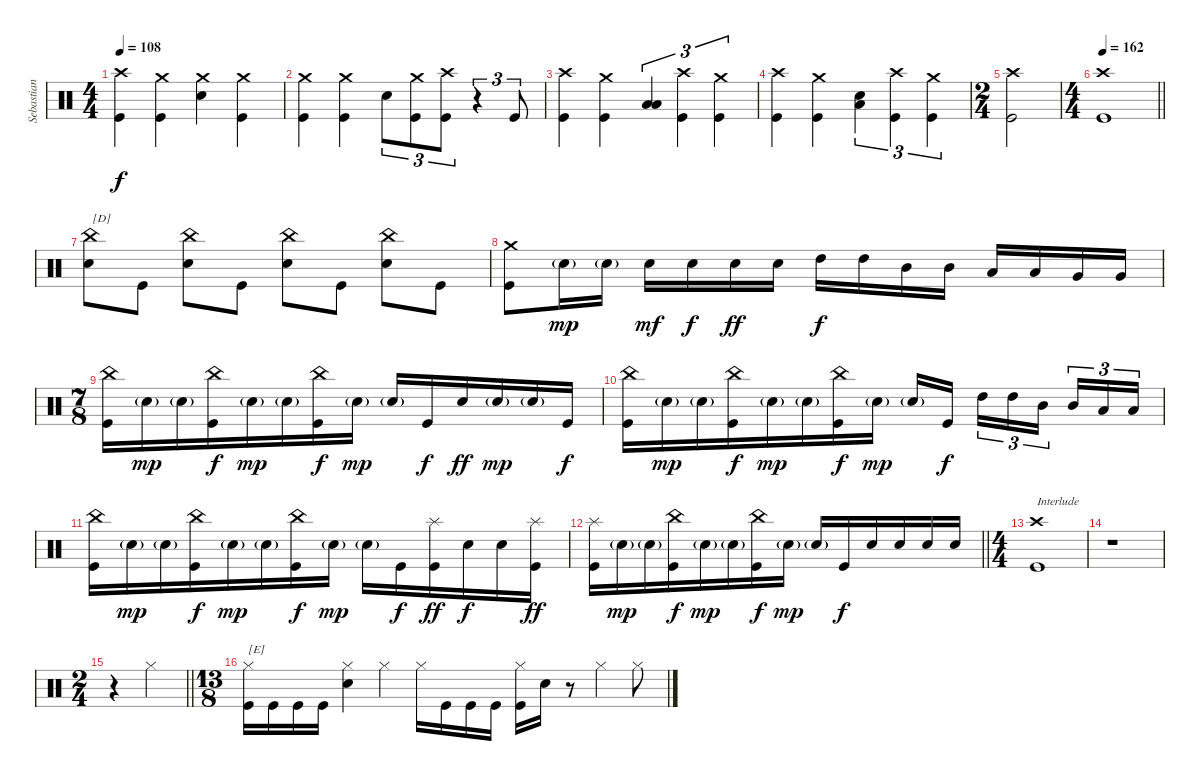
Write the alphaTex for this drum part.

\track ("Sebastian Lanser" "Sebastian ") {instrument percussion}
\staff {score}
\articulation defaults
\ts (4 4)
\tempo 108
\clef neutral
\ks c
("Crash high (hit)" "Kick (hit)").4{dy f} ("Crash medium (hit)" "Kick (hit)").4 ("Crash medium (hit)" "Snare (hit) 2").4 ("Crash medium (hit)" "Kick (hit)").4 |
("Crash medium (hit)" "Kick (hit)").4 ("Crash medium (hit)" "Kick (hit)").4 "Snare (hit) 2".8{tu (3 2)} ("Crash medium (hit)" "Kick (hit)").8{tu (3 2)} ("Crash high (hit)" "Kick (hit)").8{tu (3 2)} r.4{tu (3 2)} "Kick (hit)".8{tu (3 2)} |
("Crash high (hit)" "Kick (hit)").4 ("Crash medium (hit)" "Kick (hit)").4 ("Low Floor Tom (hit)" "Low Tom (hit)").4{tu (3 2)} ("Crash high (hit)" "Kick (hit)").4{tu (3 2)} ("Crash medium (hit)" "Kick (hit)").4{tu (3 2)} |
("Crash high (hit)" "Kick (hit)").4 ("Crash medium (hit)" "Kick (hit)").4 ("Low Tom (hit)" "Snare (hit) 2").4{tu (3 2)} ("Crash high (hit)" "Kick (hit)").4{tu (3 2)} ("Crash medium (hit)" "Kick (hit)").4{tu (3 2)} |
\ts (2 4)
("Crash high (hit)" "Kick (hit)").2 |
\ts (4 4)
\tempo 162
\barLineRight lightlight
("Crash high (hit)" "Kick (hit)").1 |
("China (hit)" "Snare (hit) 2").8{txt "[D]"} "Kick (hit)".8 ("China (hit)" "Snare (hit) 2").8 "Kick (hit)".8 ("China (hit)" "Snare (hit) 2").8 "Kick (hit)".8 ("China (hit)" "Snare (hit) 2").8 "Kick (hit)".8 |
("Crash medium (hit)" "Kick (hit)").8 "Snare (hit) 2"{g}.16{dy mp} "Snare (hit) 2"{g}.16 "Snare (hit) 2".16{dy mf} "Snare (hit) 2".16{dy f} "Snare (hit) 2".16{dy ff} "Snare (hit) 2".16 "High Tom (hit)".16{dy f} "High Tom (hit)".16 "Mid Tom (hit)".16 "Mid Tom (hit)".16 "Low Tom (hit)".16 "Low Tom (hit)".16 "Very Low Tom (hit)".16 "Very Low Tom (hit)".16 |
\ts (7 8)
("China (hit)" "Kick (hit)").16 "Snare (hit) 2"{g}.16{dy mp} "Snare (hit) 2"{g}.16 ("China (hit)" "Kick (hit)").16{dy f} "Snare (hit) 2"{g}.16{dy mp} "Snare (hit) 2"{g}.16 ("China (hit)" "Kick (hit)").16{dy f} "Snare (hit) 2"{g}.16{dy mp} "Snare (hit) 2"{g}.16 "Kick (hit)".16{dy f} "Snare (hit) 2".16{dy ff} "Snare (hit) 2"{g}.16{dy mp} "Snare (hit) 2"{g}.16 "Kick (hit)".16{dy f} |
("China (hit)" "Kick (hit)").16 "Snare (hit) 2"{g}.16{dy mp} "Snare (hit) 2"{g}.16 ("China (hit)" "Kick (hit)").16{dy f} "Snare (hit) 2"{g}.16{dy mp} "Snare (hit) 2"{g}.16 ("China (hit)" "Kick (hit)").16{dy f} "Snare (hit) 2"{g}.16{dy mp} "Snare (hit) 2"{g}.16 "Kick (hit)".16{dy f} "High Tom (hit)".16{tu (3 2)} "High Tom (hit)".16{tu (3 2)} "Mid Tom (hit)".16{tu (3 2)} "Mid Tom (hit)".16{tu (3 2)} "Low Tom (hit)".16{tu (3 2)} "Low Tom (hit)".16{tu (3 2)} |
("China (hit)" "Kick (hit)").16 "Snare (hit) 2"{g}.16{dy mp} "Snare (hit) 2"{g}.16 ("China (hit)" "Kick (hit)").16{dy f} "Snare (hit) 2"{g}.16{dy mp} "Snare (hit) 2"{g}.16 ("China (hit)" "Kick (hit)").16{dy f} "Snare (hit) 2"{g}.16{dy mp} "Snare (hit) 2"{g}.16 "Kick (hit)".16{dy f} ("Splash (hit)" "Kick (hit)").16{dy ff} "Snare (hit) 2".16{dy f} "Snare (hit) 2".16 ("Splash (hit)" "Kick (hit)").16{dy ff} |
\barLineRight lightlight
("Splash (hit)" "Kick (hit)").16 "Snare (hit) 2"{g}.16{dy mp} "Snare (hit) 2"{g}.16 ("China (hit)" "Kick (hit)").16{dy f} "Snare (hit) 2"{g}.16{dy mp} "Snare (hit) 2"{g}.16 ("China (hit)" "Kick (hit)").16{dy f} "Snare (hit) 2"{g}.16{dy mp} "Snare (hit) 2"{g}.16 "Kick (hit)".16{dy f} "Snare (hit) 2".16 "Snare (hit) 2".16 "Snare (hit) 2".16 "Snare (hit) 2".16 |
\ts (4 4)
("Crash high (hit)" "Kick (hit)").1{txt "Interlude"} |
r.1 |
\ts (2 4)
\barLineRight lightlight
r.4 "Hi-Hat (closed)".4 |
\ts (13 8)
("Hi-Hat (closed)" "Kick (hit)").16{txt "[E]"} "Kick (hit)".16 "Kick (hit)".16 "Kick (hit)".16 ("Hi-Hat (closed)" "Snare (hit) 2").4 "Hi-Hat (closed)".4 "Hi-Hat (closed)".16 "Kick (hit)".16 "Kick (hit)".16 "Kick (hit)".16 ("Hi-Hat (closed)" "Kick (hit)").16 "Snare (hit) 2".16 r.8 "Hi-Hat (closed)".4 "Hi-Hat (closed)".8
